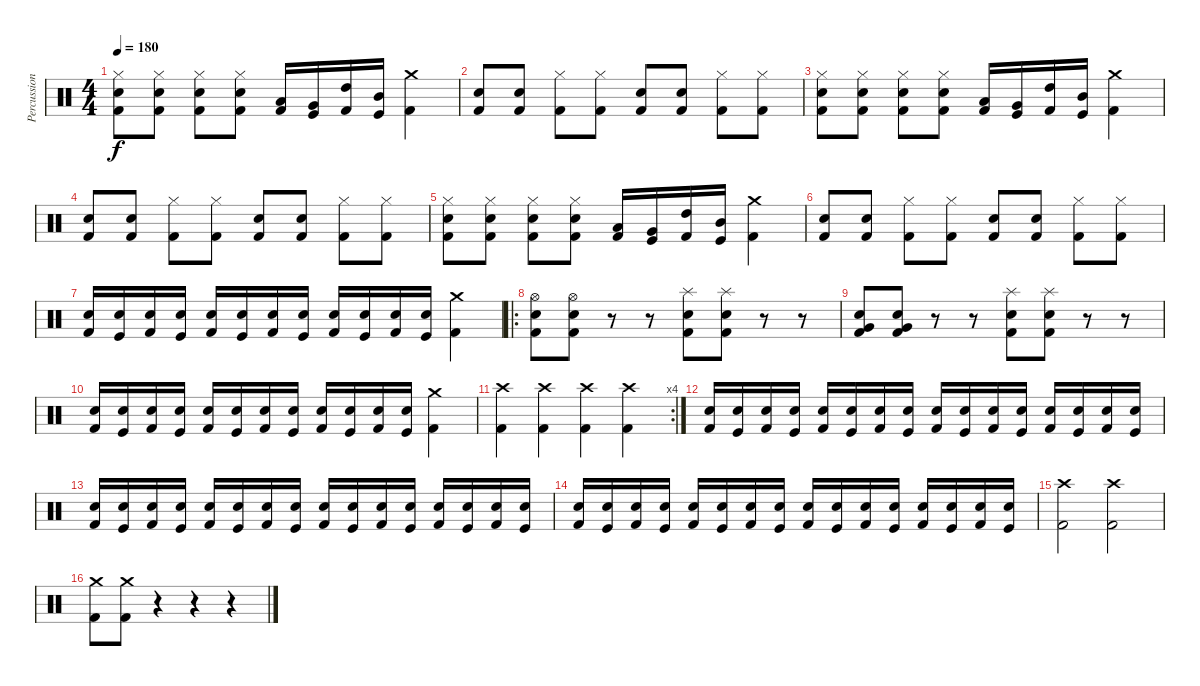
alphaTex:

\track ("Percussion" "Percussion") {instrument percussion}
\staff {score}
\articulation defaults
\ts (4 4)
\tempo 180
\clef neutral
\ks c
("Hi-Hat (closed)" "Electric Snare (hit)" "Kick (hit) 2").8{dy f} ("Hi-Hat (closed)" "Electric Snare (hit)" "Kick (hit) 2").8 ("Hi-Hat (closed)" "Electric Snare (hit)" "Kick (hit) 2").8 ("Hi-Hat (closed)" "Electric Snare (hit)" "Kick (hit) 2").8 ("Low Floor Tom (hit)" "Kick (hit) 2").16 ("Very Low Tom (hit)" "Kick (hit)").16 ("High Tom (hit)" "Kick (hit) 2").16 ("Mid Tom (hit)" "Kick (hit)").16 ("Crash medium (hit)" "Kick (hit) 2").4 |
("Electric Snare (hit)" "Kick (hit) 2").8 ("Electric Snare (hit)" "Kick (hit) 2").8 ("Hi-Hat (closed)" "Kick (hit) 2").8 ("Hi-Hat (closed)" "Kick (hit) 2").8 ("Electric Snare (hit)" "Kick (hit) 2").8 ("Electric Snare (hit)" "Kick (hit) 2").8 ("Hi-Hat (closed)" "Kick (hit) 2").8 ("Hi-Hat (closed)" "Kick (hit) 2").8 |
("Hi-Hat (closed)" "Electric Snare (hit)" "Kick (hit) 2").8 ("Hi-Hat (closed)" "Electric Snare (hit)" "Kick (hit) 2").8 ("Hi-Hat (closed)" "Electric Snare (hit)" "Kick (hit) 2").8 ("Hi-Hat (closed)" "Electric Snare (hit)" "Kick (hit) 2").8 ("Low Floor Tom (hit)" "Kick (hit) 2").16 ("Very Low Tom (hit)" "Kick (hit)").16 ("High Tom (hit)" "Kick (hit) 2").16 ("Mid Tom (hit)" "Kick (hit)").16 ("Crash medium (hit)" "Kick (hit) 2").4 |
("Electric Snare (hit)" "Kick (hit) 2").8 ("Electric Snare (hit)" "Kick (hit) 2").8 ("Hi-Hat (closed)" "Kick (hit) 2").8 ("Hi-Hat (closed)" "Kick (hit) 2").8 ("Electric Snare (hit)" "Kick (hit) 2").8 ("Electric Snare (hit)" "Kick (hit) 2").8 ("Hi-Hat (closed)" "Kick (hit) 2").8 ("Hi-Hat (closed)" "Kick (hit) 2").8 |
("Hi-Hat (closed)" "Electric Snare (hit)" "Kick (hit) 2").8 ("Hi-Hat (closed)" "Electric Snare (hit)" "Kick (hit) 2").8 ("Hi-Hat (closed)" "Electric Snare (hit)" "Kick (hit) 2").8 ("Hi-Hat (closed)" "Electric Snare (hit)" "Kick (hit) 2").8 ("Low Floor Tom (hit)" "Kick (hit) 2").16 ("Very Low Tom (hit)" "Kick (hit)").16 ("High Tom (hit)" "Kick (hit) 2").16 ("Mid Tom (hit)" "Kick (hit)").16 ("Crash medium (hit)" "Kick (hit) 2").4 |
("Electric Snare (hit)" "Kick (hit) 2").8 ("Electric Snare (hit)" "Kick (hit) 2").8 ("Hi-Hat (closed)" "Kick (hit) 2").8 ("Hi-Hat (closed)" "Kick (hit) 2").8 ("Electric Snare (hit)" "Kick (hit) 2").8 ("Electric Snare (hit)" "Kick (hit) 2").8 ("Hi-Hat (closed)" "Kick (hit) 2").8 ("Hi-Hat (closed)" "Kick (hit) 2").8 |
("Electric Snare (hit)" "Kick (hit) 2").16 ("Electric Snare (hit)" "Kick (hit)").16 ("Electric Snare (hit)" "Kick (hit) 2").16 ("Electric Snare (hit)" "Kick (hit)").16 ("Electric Snare (hit)" "Kick (hit) 2").16 ("Electric Snare (hit)" "Kick (hit)").16 ("Electric Snare (hit)" "Kick (hit) 2").16 ("Electric Snare (hit)" "Kick (hit)").16 ("Electric Snare (hit)" "Kick (hit) 2").16 ("Electric Snare (hit)" "Kick (hit)").16 ("Electric Snare (hit)" "Kick (hit) 2").16 ("Electric Snare (hit)" "Kick (hit)").16 ("Crash medium (hit)" "Kick (hit) 2").4 |
\ro
("Hi-Hat (open)" "Electric Snare (hit)" "Kick (hit) 2").8 ("Hi-Hat (open)" "Electric Snare (hit)" "Kick (hit) 2").8 r.8 r.8 ("Splash (hit)" "Electric Snare (hit)" "Kick (hit) 2").8 ("Splash (hit)" "Electric Snare (hit)" "Kick (hit) 2").8 r.8 r.8 |
("Very Low Tom (hit)" "Electric Snare (hit)" "Kick (hit) 2").8 ("Very Low Tom (hit)" "Electric Snare (hit)" "Kick (hit) 2").8 r.8 r.8 ("Splash (hit)" "Electric Snare (hit)" "Kick (hit) 2").8 ("Splash (hit)" "Electric Snare (hit)" "Kick (hit) 2").8 r.8 r.8 |
("Electric Snare (hit)" "Kick (hit) 2").16 ("Electric Snare (hit)" "Kick (hit)").16 ("Electric Snare (hit)" "Kick (hit) 2").16 ("Electric Snare (hit)" "Kick (hit)").16 ("Electric Snare (hit)" "Kick (hit) 2").16 ("Electric Snare (hit)" "Kick (hit)").16 ("Electric Snare (hit)" "Kick (hit) 2").16 ("Electric Snare (hit)" "Kick (hit)").16 ("Electric Snare (hit)" "Kick (hit) 2").16 ("Electric Snare (hit)" "Kick (hit)").16 ("Electric Snare (hit)" "Kick (hit) 2").16 ("Electric Snare (hit)" "Kick (hit)").16 ("Crash medium (hit)" "Kick (hit) 2").4 |
\rc 4
("Crash high (hit)" "Kick (hit) 2").4 ("Crash high (hit)" "Kick (hit) 2").4 ("Crash high (hit)" "Kick (hit) 2").4 ("Crash high (hit)" "Kick (hit) 2").4 |
("Electric Snare (hit)" "Kick (hit) 2").16 ("Electric Snare (hit)" "Kick (hit)").16 ("Electric Snare (hit)" "Kick (hit) 2").16 ("Electric Snare (hit)" "Kick (hit)").16 ("Electric Snare (hit)" "Kick (hit) 2").16 ("Electric Snare (hit)" "Kick (hit)").16 ("Electric Snare (hit)" "Kick (hit) 2").16 ("Electric Snare (hit)" "Kick (hit)").16 ("Electric Snare (hit)" "Kick (hit) 2").16 ("Electric Snare (hit)" "Kick (hit)").16 ("Electric Snare (hit)" "Kick (hit) 2").16 ("Electric Snare (hit)" "Kick (hit)").16 ("Electric Snare (hit)" "Kick (hit) 2").16 ("Electric Snare (hit)" "Kick (hit)").16 ("Electric Snare (hit)" "Kick (hit) 2").16 ("Electric Snare (hit)" "Kick (hit)").16 |
("Electric Snare (hit)" "Kick (hit) 2").16 ("Electric Snare (hit)" "Kick (hit)").16 ("Electric Snare (hit)" "Kick (hit) 2").16 ("Electric Snare (hit)" "Kick (hit)").16 ("Electric Snare (hit)" "Kick (hit) 2").16 ("Electric Snare (hit)" "Kick (hit)").16 ("Electric Snare (hit)" "Kick (hit) 2").16 ("Electric Snare (hit)" "Kick (hit)").16 ("Electric Snare (hit)" "Kick (hit) 2").16 ("Electric Snare (hit)" "Kick (hit)").16 ("Electric Snare (hit)" "Kick (hit) 2").16 ("Electric Snare (hit)" "Kick (hit)").16 ("Electric Snare (hit)" "Kick (hit) 2").16 ("Electric Snare (hit)" "Kick (hit)").16 ("Electric Snare (hit)" "Kick (hit) 2").16 ("Electric Snare (hit)" "Kick (hit)").16 |
("Electric Snare (hit)" "Kick (hit) 2").16 ("Electric Snare (hit)" "Kick (hit)").16 ("Electric Snare (hit)" "Kick (hit) 2").16 ("Electric Snare (hit)" "Kick (hit)").16 ("Electric Snare (hit)" "Kick (hit) 2").16 ("Electric Snare (hit)" "Kick (hit)").16 ("Electric Snare (hit)" "Kick (hit) 2").16 ("Electric Snare (hit)" "Kick (hit)").16 ("Electric Snare (hit)" "Kick (hit) 2").16 ("Electric Snare (hit)" "Kick (hit)").16 ("Electric Snare (hit)" "Kick (hit) 2").16 ("Electric Snare (hit)" "Kick (hit)").16 ("Electric Snare (hit)" "Kick (hit) 2").16 ("Electric Snare (hit)" "Kick (hit)").16 ("Electric Snare (hit)" "Kick (hit) 2").16 ("Electric Snare (hit)" "Kick (hit)").16 |
("Crash high (hit)" "Kick (hit) 2").2 ("Crash high (hit)" "Kick (hit) 2").2 |
("Crash medium (hit)" "Kick (hit) 2").8 ("Crash medium (hit)" "Kick (hit) 2").8 r.4 r.4 r.4
